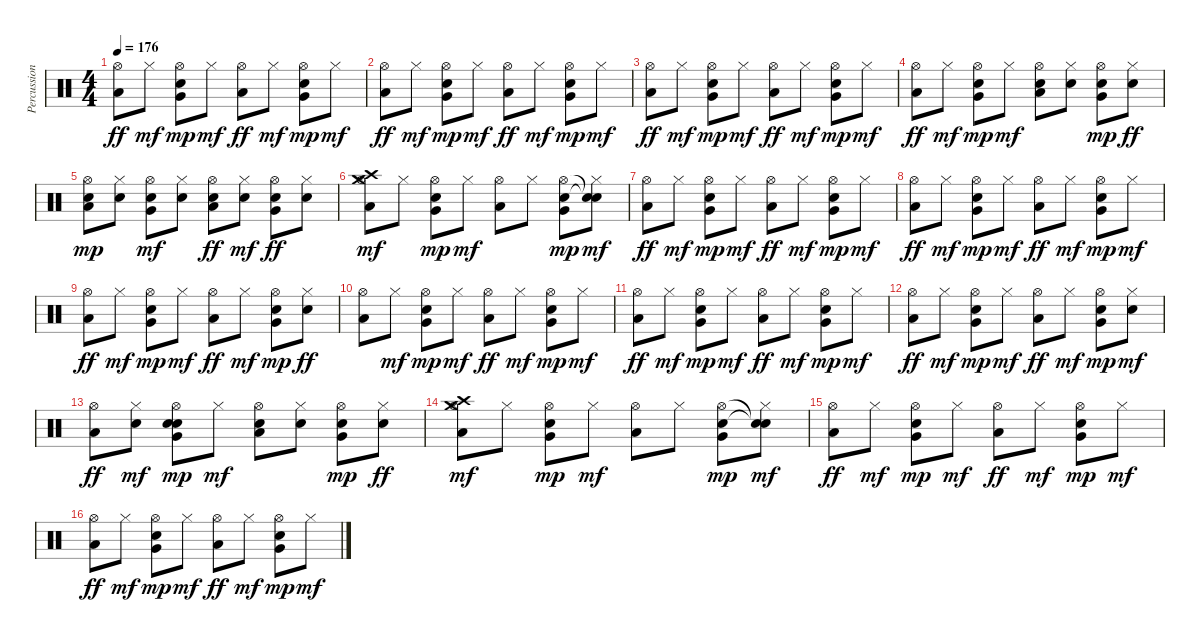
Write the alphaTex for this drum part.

\track ("Percussions" "Percussion") {instrument percussion}
\staff {score}
\articulation defaults
\ts (4 4)
\tempo 176
\clef neutral
\ks c
("Hi-Hat (open)" "Low Floor Tom (hit)").8{dy ff} "Hi-Hat (closed)".8{dy mf} ("Hi-Hat (open)" "Electric Snare (hit)" "Very Low Tom (hit)").8{dy mp} "Hi-Hat (closed)".8{dy mf} ("Hi-Hat (open)" "Low Floor Tom (hit)").8{dy ff} "Hi-Hat (closed)".8{dy mf} ("Hi-Hat (open)" "Electric Snare (hit)" "Very Low Tom (hit)").8{dy mp} "Hi-Hat (closed)".8{dy mf} |
("Hi-Hat (open)" "Low Floor Tom (hit)").8{dy ff} "Hi-Hat (closed)".8{dy mf} ("Hi-Hat (open)" "Electric Snare (hit)" "Very Low Tom (hit)").8{dy mp} "Hi-Hat (closed)".8{dy mf} ("Hi-Hat (open)" "Low Floor Tom (hit)").8{dy ff} "Hi-Hat (closed)".8{dy mf} ("Hi-Hat (open)" "Electric Snare (hit)" "Very Low Tom (hit)").8{dy mp} "Hi-Hat (closed)".8{dy mf} |
("Hi-Hat (open)" "Low Floor Tom (hit)").8{dy ff} "Hi-Hat (closed)".8{dy mf} ("Hi-Hat (open)" "Electric Snare (hit)" "Very Low Tom (hit)").8{dy mp} "Hi-Hat (closed)".8{dy mf} ("Hi-Hat (open)" "Low Floor Tom (hit)").8{dy ff} "Hi-Hat (closed)".8{dy mf} ("Hi-Hat (open)" "Electric Snare (hit)" "Very Low Tom (hit)").8{dy mp} "Hi-Hat (closed)".8{dy mf} |
("Hi-Hat (open)" "Low Floor Tom (hit)").8{dy ff} "Hi-Hat (closed)".8{dy mf} ("Hi-Hat (open)" "Electric Snare (hit)" "Very Low Tom (hit)").8{dy mp} "Hi-Hat (closed)".8{dy mf} ("Hi-Hat (open)" "Low Floor Tom (hit)" "Electric Snare (hit)").8 ("Hi-Hat (closed)" "Electric Snare (hit)").8 ("Hi-Hat (open)" "Very Low Tom (hit)" "Electric Snare (hit)").8{dy mp} ("Hi-Hat (closed)" "Electric Snare (hit)").8{dy ff} |
("Hi-Hat (open)" "Low Floor Tom (hit)" "Electric Snare (hit)").8{dy mp} ("Hi-Hat (closed)" "Electric Snare (hit)").8 ("Hi-Hat (open)" "Very Low Tom (hit)" "Electric Snare (hit)").8{dy mf} ("Hi-Hat (closed)" "Electric Snare (hit)").8 ("Hi-Hat (open)" "Low Floor Tom (hit)" "Electric Snare (hit)").8{dy ff} ("Hi-Hat (closed)" "Electric Snare (hit)").8{dy mf} ("Hi-Hat (open)" "Very Low Tom (hit)" "Electric Snare (hit)").8{dy ff} ("Hi-Hat (closed)" "Electric Snare (hit)").8 |
("Crash high (hit)" "Crash medium (hit)" "Hi-Hat (open)" "Low Floor Tom (hit)").8{dy mf} "Hi-Hat (closed)".8 ("Hi-Hat (open)" "Electric Snare (hit)" "Very Low Tom (hit)").8{dy mp} "Hi-Hat (closed)".8{dy mf} ("Hi-Hat (open)" "Low Floor Tom (hit)").8 "Hi-Hat (closed)".8 ("Hi-Hat (open)" "Electric Snare (hit)" "Very Low Tom (hit)").8{dy mp} ("Snare (hit)"{t} "Snare (hit)"{t} "Hi-Hat (closed)").8{dy mf} |
("Hi-Hat (open)" "Low Floor Tom (hit)").8{dy ff} "Hi-Hat (closed)".8{dy mf} ("Hi-Hat (open)" "Electric Snare (hit)" "Very Low Tom (hit)").8{dy mp} "Hi-Hat (closed)".8{dy mf} ("Hi-Hat (open)" "Low Floor Tom (hit)").8{dy ff} "Hi-Hat (closed)".8{dy mf} ("Hi-Hat (open)" "Electric Snare (hit)" "Very Low Tom (hit)").8{dy mp} "Hi-Hat (closed)".8{dy mf} |
("Hi-Hat (open)" "Low Floor Tom (hit)").8{dy ff} "Hi-Hat (closed)".8{dy mf} ("Hi-Hat (open)" "Electric Snare (hit)" "Very Low Tom (hit)").8{dy mp} "Hi-Hat (closed)".8{dy mf} ("Hi-Hat (open)" "Low Floor Tom (hit)").8{dy ff} "Hi-Hat (closed)".8{dy mf} ("Hi-Hat (open)" "Electric Snare (hit)" "Very Low Tom (hit)").8{dy mp} "Hi-Hat (closed)".8{dy mf} |
("Hi-Hat (open)" "Low Floor Tom (hit)").8{dy ff} "Hi-Hat (closed)".8{dy mf} ("Hi-Hat (open)" "Electric Snare (hit)" "Very Low Tom (hit)").8{dy mp} "Hi-Hat (closed)".8{dy mf} ("Hi-Hat (open)" "Low Floor Tom (hit)").8{dy ff} "Hi-Hat (closed)".8{dy mf} ("Hi-Hat (open)" "Very Low Tom (hit)" "Electric Snare (hit)").8{dy mp} ("Hi-Hat (closed)" "Electric Snare (hit)").8{dy ff} |
("Hi-Hat (open)" "Low Floor Tom (hit)").8 "Hi-Hat (closed)".8{dy mf} ("Hi-Hat (open)" "Electric Snare (hit)" "Very Low Tom (hit)").8{dy mp} "Hi-Hat (closed)".8{dy mf} ("Hi-Hat (open)" "Low Floor Tom (hit)").8{dy ff} "Hi-Hat (closed)".8{dy mf} ("Hi-Hat (open)" "Electric Snare (hit)" "Very Low Tom (hit)").8{dy mp} "Hi-Hat (closed)".8{dy mf} |
("Hi-Hat (open)" "Low Floor Tom (hit)").8{dy ff} "Hi-Hat (closed)".8{dy mf} ("Hi-Hat (open)" "Electric Snare (hit)" "Very Low Tom (hit)").8{dy mp} "Hi-Hat (closed)".8{dy mf} ("Hi-Hat (open)" "Low Floor Tom (hit)").8{dy ff} "Hi-Hat (closed)".8{dy mf} ("Hi-Hat (open)" "Electric Snare (hit)" "Very Low Tom (hit)").8{dy mp} "Hi-Hat (closed)".8{dy mf} |
("Hi-Hat (open)" "Low Floor Tom (hit)").8{dy ff} "Hi-Hat (closed)".8{dy mf} ("Hi-Hat (open)" "Electric Snare (hit)" "Very Low Tom (hit)").8{dy mp} "Hi-Hat (closed)".8{dy mf} ("Hi-Hat (open)" "Low Floor Tom (hit)").8{dy ff} "Hi-Hat (closed)".8{dy mf} ("Hi-Hat (open)" "Very Low Tom (hit)" "Electric Snare (hit)").8{dy mp} ("Hi-Hat (closed)" "Electric Snare (hit)").8{dy mf} |
("Hi-Hat (open)" "Low Floor Tom (hit)").8{dy ff} ("Hi-Hat (closed)" "Electric Snare (hit)").8{dy mf} ("Hi-Hat (open)" "Electric Snare (hit)" "Very Low Tom (hit)" "Electric Snare (hit)").8{dy mp} "Hi-Hat (closed)".8{dy mf} ("Hi-Hat (open)" "Low Floor Tom (hit)" "Electric Snare (hit)").8 ("Hi-Hat (closed)" "Electric Snare (hit)").8 ("Hi-Hat (open)" "Very Low Tom (hit)" "Electric Snare (hit)").8{dy mp} ("Hi-Hat (closed)" "Electric Snare (hit)").8{dy ff} |
("Crash high (hit)" "Crash medium (hit)" "Hi-Hat (open)" "Low Floor Tom (hit)").8{dy mf} "Hi-Hat (closed)".8 ("Hi-Hat (open)" "Electric Snare (hit)" "Very Low Tom (hit)").8{dy mp} "Hi-Hat (closed)".8{dy mf} ("Hi-Hat (open)" "Low Floor Tom (hit)").8 "Hi-Hat (closed)".8 ("Hi-Hat (open)" "Electric Snare (hit)" "Very Low Tom (hit)").8{dy mp} ("Snare (hit)"{t} "Snare (hit)"{t} "Hi-Hat (closed)").8{dy mf} |
("Hi-Hat (open)" "Low Floor Tom (hit)").8{dy ff} "Hi-Hat (closed)".8{dy mf} ("Hi-Hat (open)" "Electric Snare (hit)" "Very Low Tom (hit)").8{dy mp} "Hi-Hat (closed)".8{dy mf} ("Hi-Hat (open)" "Low Floor Tom (hit)").8{dy ff} "Hi-Hat (closed)".8{dy mf} ("Hi-Hat (open)" "Electric Snare (hit)" "Very Low Tom (hit)").8{dy mp} "Hi-Hat (closed)".8{dy mf} |
("Hi-Hat (open)" "Low Floor Tom (hit)").8{dy ff} "Hi-Hat (closed)".8{dy mf} ("Hi-Hat (open)" "Electric Snare (hit)" "Very Low Tom (hit)").8{dy mp} "Hi-Hat (closed)".8{dy mf} ("Hi-Hat (open)" "Low Floor Tom (hit)").8{dy ff} "Hi-Hat (closed)".8{dy mf} ("Hi-Hat (open)" "Electric Snare (hit)" "Very Low Tom (hit)").8{dy mp} "Hi-Hat (closed)".8{dy mf}
